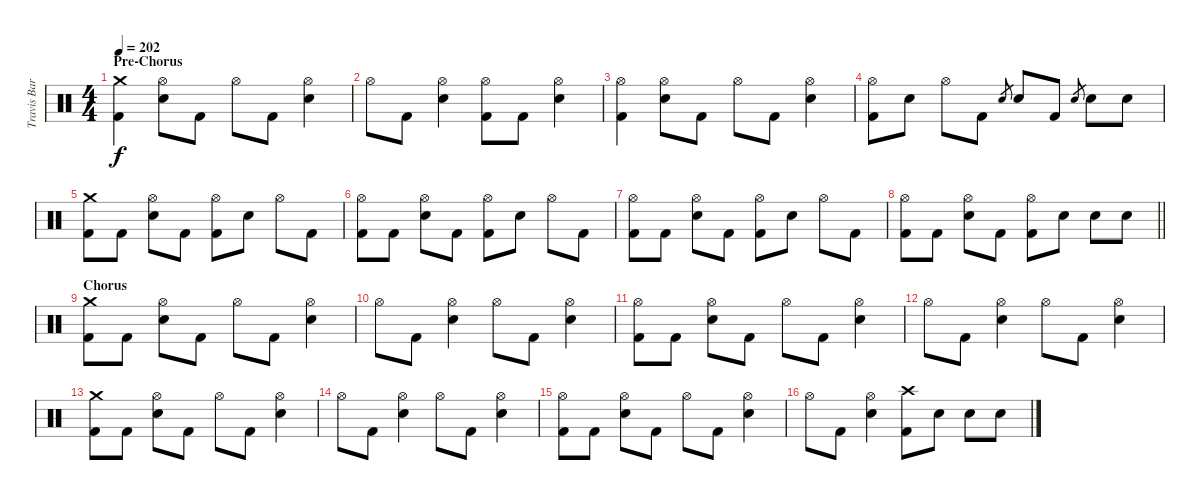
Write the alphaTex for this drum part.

\track ("Travis Barker - Drums" "Travis Bar") {instrument percussion}
\staff {score}
\articulation defaults
\ts (4 4)
\section ("" "Pre-Chorus")
\tempo 202
\clef neutral
\ks c
("Crash medium (hit)" "Kick (hit) 2").4{dy f} ("Hi-Hat (open)" "Electric Snare (hit)").8 "Kick (hit) 2".8 "Hi-Hat (open)".8 "Kick (hit) 2".8 ("Hi-Hat (open)" "Electric Snare (hit)").4 |
"Hi-Hat (open)".8 "Kick (hit) 2".8 ("Hi-Hat (open)" "Electric Snare (hit)").4 ("Hi-Hat (open)" "Kick (hit) 2").8 "Kick (hit) 2".8 ("Hi-Hat (open)" "Electric Snare (hit)").4 |
("Hi-Hat (open)" "Kick (hit) 2").4 ("Hi-Hat (open)" "Electric Snare (hit)").8 "Kick (hit) 2".8 "Hi-Hat (open)".8 "Kick (hit) 2".8 ("Hi-Hat (open)" "Electric Snare (hit)").4 |
("Hi-Hat (open)" "Kick (hit) 2").8 "Electric Snare (hit)".8 "Hi-Hat (open)".8 "Kick (hit) 2".8 "Electric Snare (hit)".8{gr} "Electric Snare (hit)".8 "Kick (hit) 2".8 "Electric Snare (hit)".8{gr} "Electric Snare (hit)".8 "Electric Snare (hit)".8 |
("Crash medium (hit)" "Kick (hit) 2").8 "Kick (hit) 2".8 ("Hi-Hat (open)" "Electric Snare (hit)").8 "Kick (hit) 2".8 ("Hi-Hat (open)" "Kick (hit) 2").8 "Electric Snare (hit)".8 "Hi-Hat (open)".8 "Kick (hit) 2".8 |
("Hi-Hat (open)" "Kick (hit) 2").8 "Kick (hit) 2".8 ("Hi-Hat (open)" "Electric Snare (hit)").8 "Kick (hit) 2".8 ("Hi-Hat (open)" "Kick (hit) 2").8 "Electric Snare (hit)".8 "Hi-Hat (open)".8 "Kick (hit) 2".8 |
("Hi-Hat (open)" "Kick (hit) 2").8 "Kick (hit) 2".8 ("Hi-Hat (open)" "Electric Snare (hit)").8 "Kick (hit) 2".8 ("Hi-Hat (open)" "Kick (hit) 2").8 "Electric Snare (hit)".8 "Hi-Hat (open)".8 "Kick (hit) 2".8 |
\barLineRight lightlight
("Hi-Hat (open)" "Kick (hit) 2").8 "Kick (hit) 2".8 ("Hi-Hat (open)" "Electric Snare (hit)").8 "Kick (hit) 2".8 ("Hi-Hat (open)" "Kick (hit) 2").8 "Electric Snare (hit)".8 "Electric Snare (hit)".8 "Electric Snare (hit)".8 |
\section ("" "Chorus")
("Crash medium (hit)" "Kick (hit) 2").8 "Kick (hit) 2".8 ("Hi-Hat (open)" "Electric Snare (hit)").8 "Kick (hit) 2".8 "Hi-Hat (open)".8 "Kick (hit) 2".8 ("Hi-Hat (open)" "Electric Snare (hit)").4 |
"Hi-Hat (open)".8 "Kick (hit) 2".8 ("Hi-Hat (open)" "Electric Snare (hit)").4 "Hi-Hat (open)".8 "Kick (hit) 2".8 ("Hi-Hat (open)" "Electric Snare (hit)").4 |
("Hi-Hat (open)" "Kick (hit) 2").8 "Kick (hit) 2".8 ("Hi-Hat (open)" "Electric Snare (hit)").8 "Kick (hit) 2".8 "Hi-Hat (open)".8 "Kick (hit) 2".8 ("Hi-Hat (open)" "Electric Snare (hit)").4 |
"Hi-Hat (open)".8 "Kick (hit) 2".8 ("Hi-Hat (open)" "Electric Snare (hit)").4 "Hi-Hat (open)".8 "Kick (hit) 2".8 ("Hi-Hat (open)" "Electric Snare (hit)").4 |
("Crash medium (hit)" "Kick (hit) 2").8 "Kick (hit) 2".8 ("Hi-Hat (open)" "Electric Snare (hit)").8 "Kick (hit) 2".8 "Hi-Hat (open)".8 "Kick (hit) 2".8 ("Hi-Hat (open)" "Electric Snare (hit)").4 |
"Hi-Hat (open)".8 "Kick (hit) 2".8 ("Hi-Hat (open)" "Electric Snare (hit)").4 "Hi-Hat (open)".8 "Kick (hit) 2".8 ("Hi-Hat (open)" "Electric Snare (hit)").4 |
("Hi-Hat (open)" "Kick (hit) 2").8 "Kick (hit) 2".8 ("Hi-Hat (open)" "Electric Snare (hit)").8 "Kick (hit) 2".8 "Hi-Hat (open)".8 "Kick (hit) 2".8 ("Hi-Hat (open)" "Electric Snare (hit)").4 |
"Hi-Hat (open)".8 "Kick (hit) 2".8 ("Hi-Hat (open)" "Electric Snare (hit)").4 ("Crash high (hit)" "Kick (hit) 2").8 "Electric Snare (hit)".8 "Electric Snare (hit)".8 "Electric Snare (hit)".8
